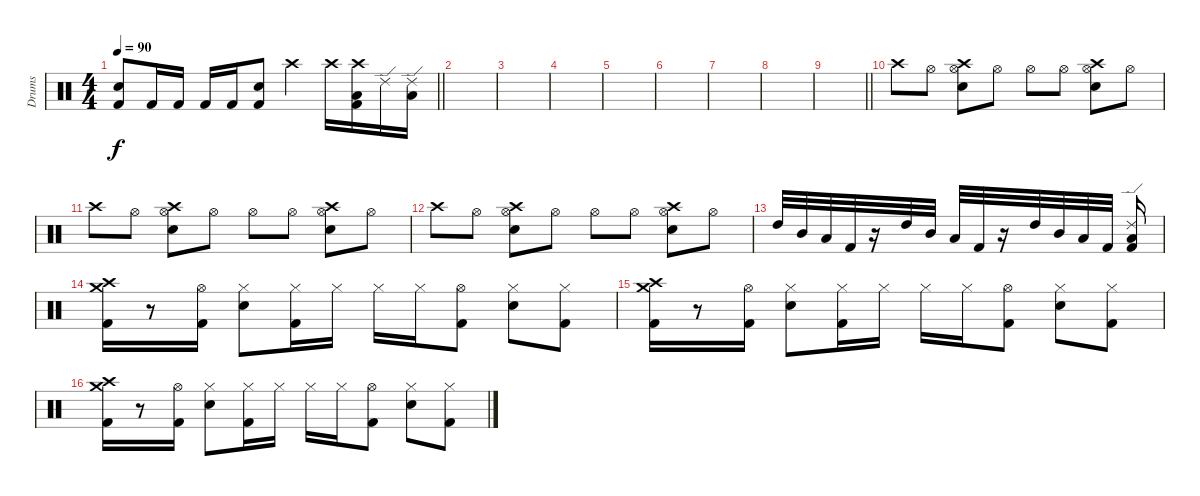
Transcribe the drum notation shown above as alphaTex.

\track ("Drums" "Drums") {instrument percussion}
\staff {score}
\articulation defaults
\ts (4 4)
\tempo 90
\clef neutral
\barLineRight lightlight
\ks c
("Snare (hit) 2" "Kick (hit) 2").8{dy f} "Kick (hit) 2".16 "Kick (hit) 2".16 "Kick (hit) 2".16 "Kick (hit) 2".16 ("Snare (hit) 2" "Kick (hit) 2").8 "Crash high (hit)".4 "Crash high (hit)".16 ("Crash high (hit)" "Low Tom (hit)" "Kick (hit) 2").16 "Ride (edge) 2".16 ("Ride (edge) 2" "Low Floor Tom (hit)").16 |
|
|
|
|
|
|
|
\barLineRight lightlight
|
"Crash high (hit)".8 "Hi-Hat (open)".8 ("Hi-Hat (open)" "Snare (hit) 2" "Crash high (hit)").8 "Hi-Hat (open)".8 "Hi-Hat (open)".8 "Hi-Hat (open)".8 ("Hi-Hat (open)" "Snare (hit) 2" "Crash high (hit)").8 "Hi-Hat (open)".8 |
"Crash high (hit)".8 "Hi-Hat (open)".8 ("Hi-Hat (open)" "Snare (hit) 2" "Crash high (hit)").8 "Hi-Hat (open)".8 "Hi-Hat (open)".8 "Hi-Hat (open)".8 ("Hi-Hat (open)" "Snare (hit) 2" "Crash high (hit)").8 "Hi-Hat (open)".8 |
"Crash high (hit)".8 "Hi-Hat (open)".8 ("Hi-Hat (open)" "Snare (hit) 2" "Crash high (hit)").8 "Hi-Hat (open)".8 "Hi-Hat (open)".8 "Hi-Hat (open)".8 ("Hi-Hat (open)" "Snare (hit) 2" "Crash high (hit)").8 "Hi-Hat (open)".8 |
"High Tom (hit)".32 "Mid Tom (hit)".32 "Low Tom (hit)".32 "Kick (hit) 2".32 r.16 "High Tom (hit)".32 "Mid Tom (hit)".32 "Low Tom (hit)".32 "Kick (hit) 2".32 r.16 "High Tom (hit)".32 "Mid Tom (hit)".32 "Low Tom (hit)".32 "Kick (hit) 2".32 ("Ride (edge) 2" "Low Tom (hit)" "Kick (hit) 2").16 |
("Crash high (hit)" "Crash medium (hit)" "Kick (hit) 2").16 r.8 ("Hi-Hat (open)" "Kick (hit) 2").16 ("Hi-Hat (closed)" "Electric Snare (hit)").8 ("Hi-Hat (closed)" "Kick (hit) 2").16 "Hi-Hat (closed)".16 "Hi-Hat (closed)".16 "Hi-Hat (closed)".16 ("Hi-Hat (open)" "Kick (hit) 2").8 ("Hi-Hat (closed)" "Electric Snare (hit)").8 ("Hi-Hat (closed)" "Kick (hit) 2").8 |
("Crash high (hit)" "Crash medium (hit)" "Kick (hit) 2").16 r.8 ("Hi-Hat (open)" "Kick (hit) 2").16 ("Hi-Hat (closed)" "Electric Snare (hit)").8 ("Hi-Hat (closed)" "Kick (hit) 2").16 "Hi-Hat (closed)".16 "Hi-Hat (closed)".16 "Hi-Hat (closed)".16 ("Hi-Hat (open)" "Kick (hit) 2").8 ("Hi-Hat (closed)" "Electric Snare (hit)").8 ("Hi-Hat (closed)" "Kick (hit) 2").8 |
("Crash high (hit)" "Crash medium (hit)" "Kick (hit) 2").16 r.8 ("Hi-Hat (open)" "Kick (hit) 2").16 ("Hi-Hat (closed)" "Electric Snare (hit)").8 ("Hi-Hat (closed)" "Kick (hit) 2").16 "Hi-Hat (closed)".16 "Hi-Hat (closed)".16 "Hi-Hat (closed)".16 ("Hi-Hat (open)" "Kick (hit) 2").8 ("Hi-Hat (closed)" "Electric Snare (hit)").8 ("Hi-Hat (closed)" "Kick (hit) 2").8
